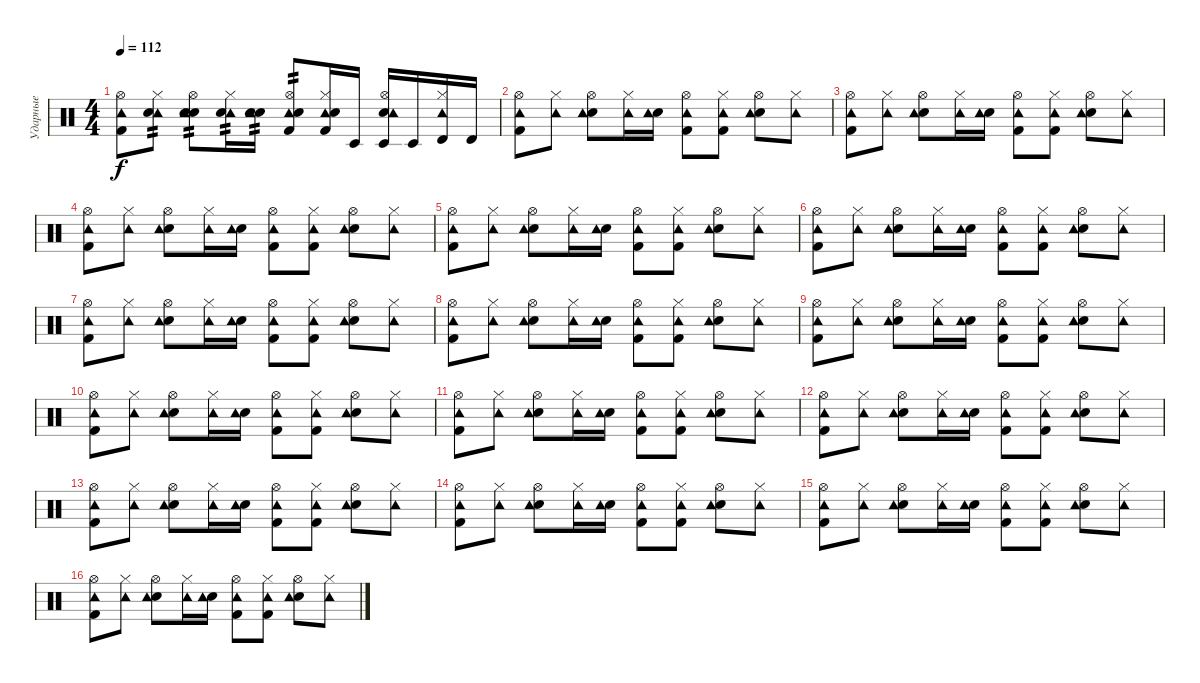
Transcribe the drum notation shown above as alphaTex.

\track ("Ударные" "Ударные") {instrument percussion}
\staff {score}
\articulation defaults
\ts (4 4)
\tempo 112
\clef neutral
\ks c
("Hi-Hat (open)" "Kick (hit) 2" "Tambourine (hit)").8{dy f} ("Hi-Hat (closed)" "Tambourine (hit)" "Electric Snare (hit)").8{tp 2} ("Hi-Hat (open)" "Electric Snare (hit)" "Tambourine (hit)" "Electric Snare (hit)").8{tp 2} ("Hi-Hat (closed)" "Tambourine (hit)" "Electric Snare (hit)").16{tp 2} ("Electric Snare (hit)" "Tambourine (hit)" "Electric Snare (hit)").16{tp 2} ("Hi-Hat (open)" "Kick (hit) 2" "Tambourine (hit)" "Electric Snare (hit)").8{tp 2} ("Hi-Hat (closed)" "Kick (hit) 2" "Tambourine (hit)" "Electric Snare (hit)").16 "Timbale low (hit)".16 ("Hi-Hat (open)" "Electric Snare (hit)" "Tambourine (hit)" "Timbale low (hit)").16 "Timbale low (hit)".16 ("Hi-Hat (closed)" "Tambourine (hit)" "Timbale high (hit)").16 "Timbale high (hit)".16 |
("Hi-Hat (open)" "Kick (hit) 2" "Tambourine (hit)").8 ("Hi-Hat (closed)" "Tambourine (hit)").8 ("Hi-Hat (open)" "Electric Snare (hit)" "Tambourine (hit)").8 ("Hi-Hat (closed)" "Tambourine (hit)").16 ("Electric Snare (hit)" "Tambourine (hit)").16 ("Hi-Hat (open)" "Kick (hit) 2" "Tambourine (hit)").8 ("Hi-Hat (closed)" "Kick (hit) 2" "Tambourine (hit)").8 ("Hi-Hat (open)" "Electric Snare (hit)" "Tambourine (hit)").8 ("Hi-Hat (closed)" "Tambourine (hit)").8 |
("Hi-Hat (open)" "Kick (hit) 2" "Tambourine (hit)").8 ("Hi-Hat (closed)" "Tambourine (hit)").8 ("Hi-Hat (open)" "Electric Snare (hit)" "Tambourine (hit)").8 ("Hi-Hat (closed)" "Tambourine (hit)").16 ("Electric Snare (hit)" "Tambourine (hit)").16 ("Hi-Hat (open)" "Kick (hit) 2" "Tambourine (hit)").8 ("Hi-Hat (closed)" "Kick (hit) 2" "Tambourine (hit)").8 ("Hi-Hat (open)" "Electric Snare (hit)" "Tambourine (hit)").8 ("Hi-Hat (closed)" "Tambourine (hit)").8 |
("Hi-Hat (open)" "Kick (hit) 2" "Tambourine (hit)").8 ("Hi-Hat (closed)" "Tambourine (hit)").8 ("Hi-Hat (open)" "Electric Snare (hit)" "Tambourine (hit)").8 ("Hi-Hat (closed)" "Tambourine (hit)").16 ("Electric Snare (hit)" "Tambourine (hit)").16 ("Hi-Hat (open)" "Kick (hit) 2" "Tambourine (hit)").8 ("Hi-Hat (closed)" "Kick (hit) 2" "Tambourine (hit)").8 ("Hi-Hat (open)" "Electric Snare (hit)" "Tambourine (hit)").8 ("Hi-Hat (closed)" "Tambourine (hit)").8 |
("Hi-Hat (open)" "Kick (hit) 2" "Tambourine (hit)").8 ("Hi-Hat (closed)" "Tambourine (hit)").8 ("Hi-Hat (open)" "Electric Snare (hit)" "Tambourine (hit)").8 ("Hi-Hat (closed)" "Tambourine (hit)").16 ("Electric Snare (hit)" "Tambourine (hit)").16 ("Hi-Hat (open)" "Kick (hit) 2" "Tambourine (hit)").8 ("Hi-Hat (closed)" "Kick (hit) 2" "Tambourine (hit)").8 ("Hi-Hat (open)" "Electric Snare (hit)" "Tambourine (hit)").8 ("Hi-Hat (closed)" "Tambourine (hit)").8 |
("Hi-Hat (open)" "Kick (hit) 2" "Tambourine (hit)").8 ("Hi-Hat (closed)" "Tambourine (hit)").8 ("Hi-Hat (open)" "Electric Snare (hit)" "Tambourine (hit)").8 ("Hi-Hat (closed)" "Tambourine (hit)").16 ("Electric Snare (hit)" "Tambourine (hit)").16 ("Hi-Hat (open)" "Kick (hit) 2" "Tambourine (hit)").8 ("Hi-Hat (closed)" "Kick (hit) 2" "Tambourine (hit)").8 ("Hi-Hat (open)" "Electric Snare (hit)" "Tambourine (hit)").8 ("Hi-Hat (closed)" "Tambourine (hit)").8 |
("Hi-Hat (open)" "Kick (hit) 2" "Tambourine (hit)").8 ("Hi-Hat (closed)" "Tambourine (hit)").8 ("Hi-Hat (open)" "Electric Snare (hit)" "Tambourine (hit)").8 ("Hi-Hat (closed)" "Tambourine (hit)").16 ("Electric Snare (hit)" "Tambourine (hit)").16 ("Hi-Hat (open)" "Kick (hit) 2" "Tambourine (hit)").8 ("Hi-Hat (closed)" "Kick (hit) 2" "Tambourine (hit)").8 ("Hi-Hat (open)" "Electric Snare (hit)" "Tambourine (hit)").8 ("Hi-Hat (closed)" "Tambourine (hit)").8 |
("Hi-Hat (open)" "Kick (hit) 2" "Tambourine (hit)").8 ("Hi-Hat (closed)" "Tambourine (hit)").8 ("Hi-Hat (open)" "Electric Snare (hit)" "Tambourine (hit)").8 ("Hi-Hat (closed)" "Tambourine (hit)").16 ("Electric Snare (hit)" "Tambourine (hit)").16 ("Hi-Hat (open)" "Kick (hit) 2" "Tambourine (hit)").8 ("Hi-Hat (closed)" "Kick (hit) 2" "Tambourine (hit)").8 ("Hi-Hat (open)" "Electric Snare (hit)" "Tambourine (hit)").8 ("Hi-Hat (closed)" "Tambourine (hit)").8 |
("Hi-Hat (open)" "Kick (hit) 2" "Tambourine (hit)").8 ("Hi-Hat (closed)" "Tambourine (hit)").8 ("Hi-Hat (open)" "Electric Snare (hit)" "Tambourine (hit)").8 ("Hi-Hat (closed)" "Tambourine (hit)").16 ("Electric Snare (hit)" "Tambourine (hit)").16 ("Hi-Hat (open)" "Kick (hit) 2" "Tambourine (hit)").8 ("Hi-Hat (closed)" "Kick (hit) 2" "Tambourine (hit)").8 ("Hi-Hat (open)" "Electric Snare (hit)" "Tambourine (hit)").8 ("Hi-Hat (closed)" "Tambourine (hit)").8 |
("Hi-Hat (open)" "Kick (hit) 2" "Tambourine (hit)").8 ("Hi-Hat (closed)" "Tambourine (hit)").8 ("Hi-Hat (open)" "Electric Snare (hit)" "Tambourine (hit)").8 ("Hi-Hat (closed)" "Tambourine (hit)").16 ("Electric Snare (hit)" "Tambourine (hit)").16 ("Hi-Hat (open)" "Kick (hit) 2" "Tambourine (hit)").8 ("Hi-Hat (closed)" "Kick (hit) 2" "Tambourine (hit)").8 ("Hi-Hat (open)" "Electric Snare (hit)" "Tambourine (hit)").8 ("Hi-Hat (closed)" "Tambourine (hit)").8 |
("Hi-Hat (open)" "Kick (hit) 2" "Tambourine (hit)").8 ("Hi-Hat (closed)" "Tambourine (hit)").8 ("Hi-Hat (open)" "Electric Snare (hit)" "Tambourine (hit)").8 ("Hi-Hat (closed)" "Tambourine (hit)").16 ("Electric Snare (hit)" "Tambourine (hit)").16 ("Hi-Hat (open)" "Kick (hit) 2" "Tambourine (hit)").8 ("Hi-Hat (closed)" "Kick (hit) 2" "Tambourine (hit)").8 ("Hi-Hat (open)" "Electric Snare (hit)" "Tambourine (hit)").8 ("Hi-Hat (closed)" "Tambourine (hit)").8 |
("Hi-Hat (open)" "Kick (hit) 2" "Tambourine (hit)").8 ("Hi-Hat (closed)" "Tambourine (hit)").8 ("Hi-Hat (open)" "Electric Snare (hit)" "Tambourine (hit)").8 ("Hi-Hat (closed)" "Tambourine (hit)").16 ("Electric Snare (hit)" "Tambourine (hit)").16 ("Hi-Hat (open)" "Kick (hit) 2" "Tambourine (hit)").8 ("Hi-Hat (closed)" "Kick (hit) 2" "Tambourine (hit)").8 ("Hi-Hat (open)" "Electric Snare (hit)" "Tambourine (hit)").8 ("Hi-Hat (closed)" "Tambourine (hit)").8 |
("Hi-Hat (open)" "Kick (hit) 2" "Tambourine (hit)").8 ("Hi-Hat (closed)" "Tambourine (hit)").8 ("Hi-Hat (open)" "Electric Snare (hit)" "Tambourine (hit)").8 ("Hi-Hat (closed)" "Tambourine (hit)").16 ("Electric Snare (hit)" "Tambourine (hit)").16 ("Hi-Hat (open)" "Kick (hit) 2" "Tambourine (hit)").8 ("Hi-Hat (closed)" "Kick (hit) 2" "Tambourine (hit)").8 ("Hi-Hat (open)" "Electric Snare (hit)" "Tambourine (hit)").8 ("Hi-Hat (closed)" "Tambourine (hit)").8 |
("Hi-Hat (open)" "Kick (hit) 2" "Tambourine (hit)").8 ("Hi-Hat (closed)" "Tambourine (hit)").8 ("Hi-Hat (open)" "Electric Snare (hit)" "Tambourine (hit)").8 ("Hi-Hat (closed)" "Tambourine (hit)").16 ("Electric Snare (hit)" "Tambourine (hit)").16 ("Hi-Hat (open)" "Kick (hit) 2" "Tambourine (hit)").8 ("Hi-Hat (closed)" "Kick (hit) 2" "Tambourine (hit)").8 ("Hi-Hat (open)" "Electric Snare (hit)" "Tambourine (hit)").8 ("Hi-Hat (closed)" "Tambourine (hit)").8 |
("Hi-Hat (open)" "Kick (hit) 2" "Tambourine (hit)").8 ("Hi-Hat (closed)" "Tambourine (hit)").8 ("Hi-Hat (open)" "Electric Snare (hit)" "Tambourine (hit)").8 ("Hi-Hat (closed)" "Tambourine (hit)").16 ("Electric Snare (hit)" "Tambourine (hit)").16 ("Hi-Hat (open)" "Kick (hit) 2" "Tambourine (hit)").8 ("Hi-Hat (closed)" "Kick (hit) 2" "Tambourine (hit)").8 ("Hi-Hat (open)" "Electric Snare (hit)" "Tambourine (hit)").8 ("Hi-Hat (closed)" "Tambourine (hit)").8 |
("Hi-Hat (open)" "Kick (hit) 2" "Tambourine (hit)").8 ("Hi-Hat (closed)" "Tambourine (hit)").8 ("Hi-Hat (open)" "Electric Snare (hit)" "Tambourine (hit)").8 ("Hi-Hat (closed)" "Tambourine (hit)").16 ("Electric Snare (hit)" "Tambourine (hit)").16 ("Hi-Hat (open)" "Kick (hit) 2" "Tambourine (hit)").8 ("Hi-Hat (closed)" "Kick (hit) 2" "Tambourine (hit)").8 ("Hi-Hat (open)" "Electric Snare (hit)" "Tambourine (hit)").8 ("Hi-Hat (closed)" "Tambourine (hit)").8
